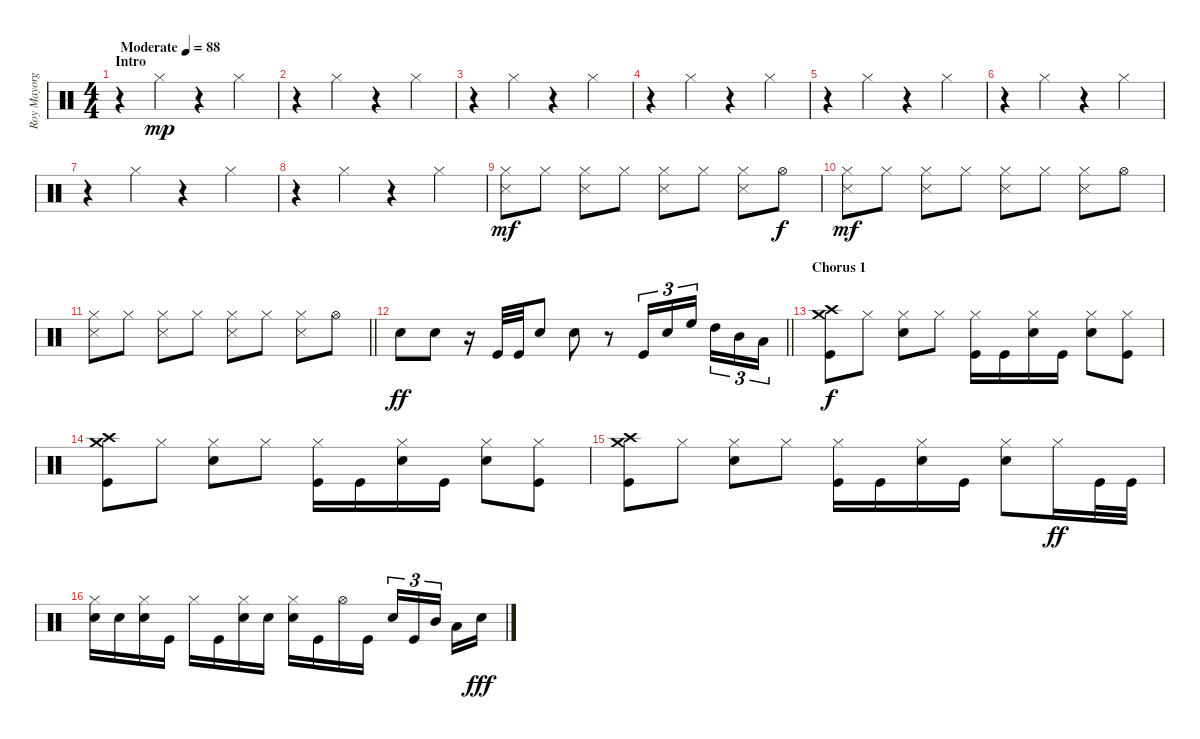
\track ("Roy Mayorga" "Roy Mayorg") {instrument percussion}
\staff {score}
\articulation defaults
\ts (4 4)
\section ("" "Intro")
\tempo (88 "Moderate")
\clef neutral
\ks c
r.4{dy mp} "Hi-Hat (closed)".4 r.4 "Hi-Hat (closed)".4 |
r.4 "Hi-Hat (closed)".4 r.4 "Hi-Hat (closed)".4 |
r.4 "Hi-Hat (closed)".4 r.4 "Hi-Hat (closed)".4 |
r.4 "Hi-Hat (closed)".4 r.4 "Hi-Hat (closed)".4 |
r.4 "Hi-Hat (closed)".4 r.4 "Hi-Hat (closed)".4 |
r.4 "Hi-Hat (closed)".4 r.4 "Hi-Hat (closed)".4 |
r.4 "Hi-Hat (closed)".4 r.4 "Hi-Hat (closed)".4 |
r.4 "Hi-Hat (closed)".4 r.4 "Hi-Hat (closed)".4 |
("Hi-Hat (closed)" "Snare (side stick) 3").8{dy mf} "Hi-Hat (closed)".8 ("Hi-Hat (closed)" "Snare (side stick) 3").8 "Hi-Hat (closed)".8 ("Hi-Hat (closed)" "Snare (side stick) 3").8 "Hi-Hat (closed)".8 ("Hi-Hat (closed)" "Snare (side stick) 3").8 "Hi-Hat (open)".8{dy f} |
("Hi-Hat (closed)" "Snare (side stick) 3").8{dy mf} "Hi-Hat (closed)".8 ("Hi-Hat (closed)" "Snare (side stick) 3").8 "Hi-Hat (closed)".8 ("Hi-Hat (closed)" "Snare (side stick) 3").8 "Hi-Hat (closed)".8 ("Hi-Hat (closed)" "Snare (side stick) 3").8 "Hi-Hat (open)".8 |
\barLineRight lightlight
("Hi-Hat (closed)" "Snare (side stick) 3").8 "Hi-Hat (closed)".8 ("Hi-Hat (closed)" "Snare (side stick) 3").8 "Hi-Hat (closed)".8 ("Hi-Hat (closed)" "Snare (side stick) 3").8 "Hi-Hat (closed)".8 ("Hi-Hat (closed)" "Snare (side stick) 3").8 "Hi-Hat (open)".8 |
\barLineRight lightlight "Snare (hit) 2".8{dy ff} "Snare (hit) 2".8
r.16 "Kick (hit)".32 "Kick (hit)".32 "Snare (hit) 2".8 "Snare (hit) 2".8 r.8 "Kick (hit)".16{tu (3 2)} "Snare (hit) 2".16{tu (3 2)} "High Floor Tom (hit)".16{tu (3 2) beam splitsecondary} "High Tom (hit)".16{tu (3 2)} "Mid Tom (hit)".16{tu (3 2)} "Low Tom (hit)".16{tu (3 2)} |
\section ("" "Chorus 1")
("Crash medium (hit)" "Crash high (hit)" "Kick (hit)").8{dy f} "Hi-Hat (closed)".8 ("Hi-Hat (closed)" "Snare (hit) 2").8 "Hi-Hat (closed)".8 ("Hi-Hat (closed)" "Kick (hit)").16 "Kick (hit)".16 ("Hi-Hat (closed)" "Snare (hit) 2").16 "Kick (hit)".16 ("Hi-Hat (closed)" "Snare (hit) 2").8 ("Hi-Hat (closed)" "Kick (hit)").8 |
("Crash medium (hit)" "Crash high (hit)" "Kick (hit)").8 "Hi-Hat (closed)".8 ("Hi-Hat (closed)" "Snare (hit) 2").8 "Hi-Hat (closed)".8 ("Hi-Hat (closed)" "Kick (hit)").16 "Kick (hit)".16 ("Hi-Hat (closed)" "Snare (hit) 2").16 "Kick (hit)".16 ("Hi-Hat (closed)" "Snare (hit) 2").8 ("Hi-Hat (closed)" "Kick (hit)").8 |
("Crash medium (hit)" "Crash high (hit)" "Kick (hit)").8 "Hi-Hat (closed)".8 ("Hi-Hat (closed)" "Snare (hit) 2").8 "Hi-Hat (closed)".8 ("Hi-Hat (closed)" "Kick (hit)").16 "Kick (hit)".16 ("Hi-Hat (closed)" "Snare (hit) 2").16 "Kick (hit)".16 ("Hi-Hat (closed)" "Snare (hit) 2").8 "Hi-Hat (closed)".16{dy ff} "Kick (hit)".32 "Kick (hit)".32 |
("Hi-Hat (closed)" "Snare (hit) 2").16 "Snare (hit) 2".16 ("Hi-Hat (closed)" "Snare (hit) 2").16 "Kick (hit)".16 "Hi-Hat (closed)".16 "Kick (hit)".16 ("Hi-Hat (closed)" "Snare (hit) 2").16 "Snare (hit) 2".16 ("Hi-Hat (closed)" "Snare (hit) 2").16 "Kick (hit)".16 "Hi-Hat (open)".16 "Kick (hit)".16 "Snare (hit) 2".16{tu (3 2)} "Kick (hit)".16{tu (3 2)} "Mid Tom (hit)".16{tu (3 2) beam splitsecondary} "Low Tom (hit)".16 "Snare (hit) 2".16{dy fff}
